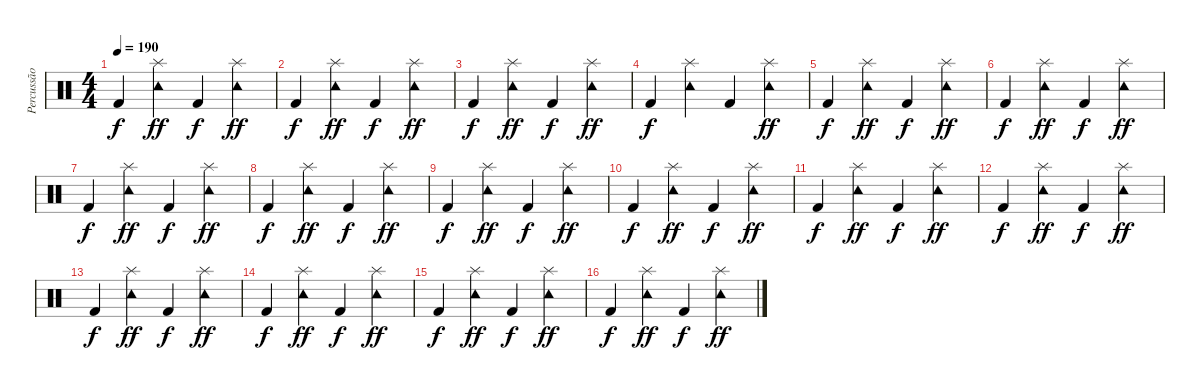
\track ("Percussão" "Percussão") {instrument percussion}
\staff {score}
\articulation defaults
\ts (4 4)
\tempo 190
\clef neutral
\ks c "Kick (hit) 2".4{dy f}
("Splash (hit)" "Tambourine (hit)").4{dy ff} "Kick (hit) 2".4{dy f} ("Splash (hit)" "Tambourine (hit)").4{dy ff} |
"Kick (hit) 2".4{dy f} ("Splash (hit)" "Tambourine (hit)").4{dy ff} "Kick (hit) 2".4{dy f} ("Splash (hit)" "Tambourine (hit)").4{dy ff} |
"Kick (hit) 2".4{dy f} ("Splash (hit)" "Tambourine (hit)").4{dy ff} "Kick (hit) 2".4{dy f} ("Splash (hit)" "Tambourine (hit)").4{dy ff} |
"Kick (hit) 2".4{dy f} ("Tambourine (hit)" "Splash (hit)").4 "Kick (hit) 2".4 ("Tambourine (hit)" "Splash (hit)").4{dy ff} |
"Kick (hit) 2".4{dy f} ("Splash (hit)" "Tambourine (hit)").4{dy ff} "Kick (hit) 2".4{dy f} ("Splash (hit)" "Tambourine (hit)").4{dy ff} |
"Kick (hit) 2".4{dy f} ("Splash (hit)" "Tambourine (hit)").4{dy ff} "Kick (hit) 2".4{dy f} ("Splash (hit)" "Tambourine (hit)").4{dy ff} |
"Kick (hit) 2".4{dy f} ("Splash (hit)" "Tambourine (hit)").4{dy ff} "Kick (hit) 2".4{dy f} ("Splash (hit)" "Tambourine (hit)").4{dy ff} |
"Kick (hit) 2".4{dy f} ("Splash (hit)" "Tambourine (hit)").4{dy ff} "Kick (hit) 2".4{dy f} ("Splash (hit)" "Tambourine (hit)").4{dy ff} |
"Kick (hit) 2".4{dy f} ("Splash (hit)" "Tambourine (hit)").4{dy ff} "Kick (hit) 2".4{dy f} ("Splash (hit)" "Tambourine (hit)").4{dy ff} |
"Kick (hit) 2".4{dy f} ("Splash (hit)" "Tambourine (hit)").4{dy ff} "Kick (hit) 2".4{dy f} ("Splash (hit)" "Tambourine (hit)").4{dy ff} |
"Kick (hit) 2".4{dy f} ("Splash (hit)" "Tambourine (hit)").4{dy ff} "Kick (hit) 2".4{dy f} ("Splash (hit)" "Tambourine (hit)").4{dy ff} |
"Kick (hit) 2".4{dy f} ("Splash (hit)" "Tambourine (hit)").4{dy ff} "Kick (hit) 2".4{dy f} ("Splash (hit)" "Tambourine (hit)").4{dy ff} |
"Kick (hit) 2".4{dy f} ("Splash (hit)" "Tambourine (hit)").4{dy ff} "Kick (hit) 2".4{dy f} ("Splash (hit)" "Tambourine (hit)").4{dy ff} |
"Kick (hit) 2".4{dy f} ("Splash (hit)" "Tambourine (hit)").4{dy ff} "Kick (hit) 2".4{dy f} ("Splash (hit)" "Tambourine (hit)").4{dy ff} |
"Kick (hit) 2".4{dy f} ("Splash (hit)" "Tambourine (hit)").4{dy ff} "Kick (hit) 2".4{dy f} ("Splash (hit)" "Tambourine (hit)").4{dy ff} |
"Kick (hit) 2".4{dy f} ("Splash (hit)" "Tambourine (hit)").4{dy ff} "Kick (hit) 2".4{dy f} ("Splash (hit)" "Tambourine (hit)").4{dy ff}
